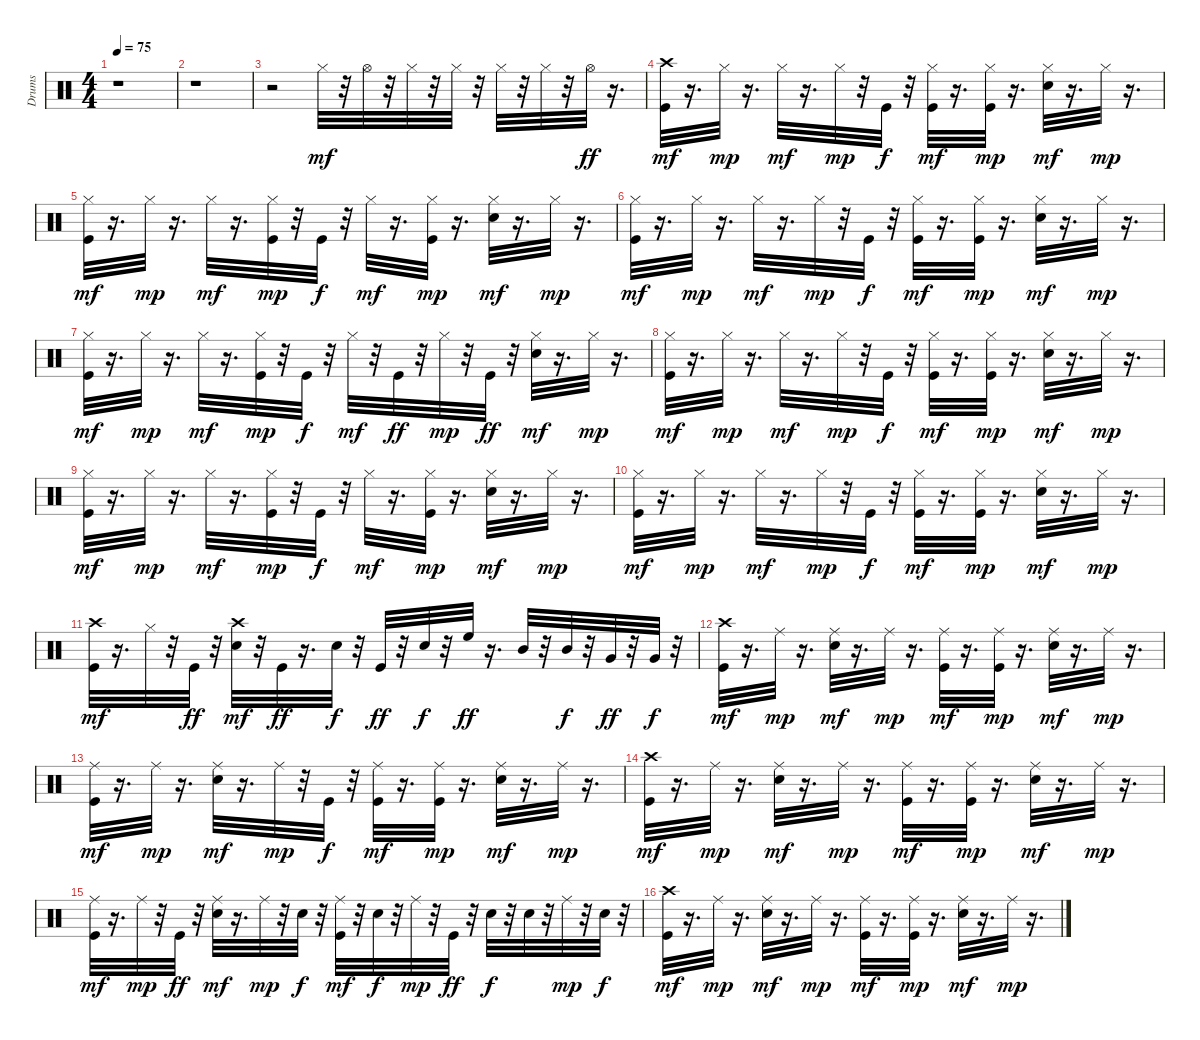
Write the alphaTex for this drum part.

\track ("Drums" "Drums") {instrument percussion}
\staff {score}
\articulation defaults
\ts (4 4)
\tempo 75
\clef neutral
\ks c
r.1{dy mf} |
r.1 |
r.2 "Hi-Hat (closed)".32 r.32 "Hi-Hat (open)".32 r.32 "Hi-Hat (closed)".32 r.32 "Hi-Hat (closed)".32 r.32 "Hi-Hat (closed)".32 r.32 "Hi-Hat (closed)".32 r.32 "Hi-Hat (open)".32{dy ff} r.16{d} |
("Kick (hit)" "Crash high (hit)").32{dy mf} r.16{d} "Hi-Hat (closed)".32{dy mp} r.16{d} "Hi-Hat (closed)".32{dy mf} r.16{d} "Hi-Hat (closed)".32{dy mp} r.32 "Kick (hit)".32{dy f} r.32 ("Kick (hit)" "Hi-Hat (closed)").32{dy mf} r.16{d} ("Kick (hit)" "Hi-Hat (closed)").32{dy mp} r.16{d} ("Snare (hit) 2" "Hi-Hat (closed)").32{dy mf} r.16{d} "Hi-Hat (closed)".32{dy mp} r.16{d} |
("Kick (hit)" "Hi-Hat (closed)").32{dy mf} r.16{d} "Hi-Hat (closed)".32{dy mp} r.16{d} "Hi-Hat (closed)".32{dy mf} r.16{d} ("Kick (hit)" "Hi-Hat (closed)").32{dy mp} r.32 "Kick (hit)".32{dy f} r.32 "Hi-Hat (closed)".32{dy mf} r.16{d} ("Kick (hit)" "Hi-Hat (closed)").32{dy mp} r.16{d} ("Snare (hit) 2" "Hi-Hat (closed)").32{dy mf} r.16{d} "Hi-Hat (closed)".32{dy mp} r.16{d} |
("Kick (hit)" "Hi-Hat (closed)").32{dy mf} r.16{d} "Hi-Hat (closed)".32{dy mp} r.16{d} "Hi-Hat (closed)".32{dy mf} r.16{d} "Hi-Hat (closed)".32{dy mp} r.32 "Kick (hit)".32{dy f} r.32 ("Kick (hit)" "Hi-Hat (closed)").32{dy mf} r.16{d} ("Kick (hit)" "Hi-Hat (closed)").32{dy mp} r.16{d} ("Snare (hit) 2" "Hi-Hat (closed)").32{dy mf} r.16{d} "Hi-Hat (closed)".32{dy mp} r.16{d} |
("Kick (hit)" "Hi-Hat (closed)").32{dy mf} r.16{d} "Hi-Hat (closed)".32{dy mp} r.16{d} "Hi-Hat (closed)".32{dy mf} r.16{d} ("Kick (hit)" "Hi-Hat (closed)").32{dy mp} r.32 "Kick (hit)".32{dy f} r.32 "Hi-Hat (closed)".32{dy mf} r.32 "Kick (hit)".32{dy ff} r.32 "Hi-Hat (closed)".32{dy mp} r.32 "Kick (hit)".32{dy ff} r.32 ("Snare (hit) 2" "Hi-Hat (closed)").32{dy mf} r.16{d} "Hi-Hat (closed)".32{dy mp} r.16{d} |
("Kick (hit)" "Hi-Hat (closed)").32{dy mf} r.16{d} "Hi-Hat (closed)".32{dy mp} r.16{d} "Hi-Hat (closed)".32{dy mf} r.16{d} "Hi-Hat (closed)".32{dy mp} r.32 "Kick (hit)".32{dy f} r.32 ("Kick (hit)" "Hi-Hat (closed)").32{dy mf} r.16{d} ("Kick (hit)" "Hi-Hat (closed)").32{dy mp} r.16{d} ("Snare (hit) 2" "Hi-Hat (closed)").32{dy mf} r.16{d} "Hi-Hat (closed)".32{dy mp} r.16{d} |
("Kick (hit)" "Hi-Hat (closed)").32{dy mf} r.16{d} "Hi-Hat (closed)".32{dy mp} r.16{d} "Hi-Hat (closed)".32{dy mf} r.16{d} ("Kick (hit)" "Hi-Hat (closed)").32{dy mp} r.32 "Kick (hit)".32{dy f} r.32 "Hi-Hat (closed)".32{dy mf} r.16{d} ("Kick (hit)" "Hi-Hat (closed)").32{dy mp} r.16{d} ("Snare (hit) 2" "Hi-Hat (closed)").32{dy mf} r.16{d} "Hi-Hat (closed)".32{dy mp} r.16{d} |
("Kick (hit)" "Hi-Hat (closed)").32{dy mf} r.16{d} "Hi-Hat (closed)".32{dy mp} r.16{d} "Hi-Hat (closed)".32{dy mf} r.16{d} "Hi-Hat (closed)".32{dy mp} r.32 "Kick (hit)".32{dy f} r.32 ("Kick (hit)" "Hi-Hat (closed)").32{dy mf} r.16{d} ("Kick (hit)" "Hi-Hat (closed)").32{dy mp} r.16{d} ("Snare (hit) 2" "Hi-Hat (closed)").32{dy mf} r.16{d} "Hi-Hat (closed)".32{dy mp} r.16{d} |
("Kick (hit)" "Crash high (hit)").32{dy mf} r.16{d} "Hi-Hat (closed)".32 r.32 "Kick (hit)".32{dy ff} r.32 ("Snare (hit) 2" "Crash high (hit)").32{dy mf} r.32 "Kick (hit)".32{dy ff} r.16{d} "Snare (hit) 2".32{dy f} r.32 "Kick (hit)".32{dy ff} r.32 "Snare (hit) 2".32{dy f} r.32 "High Floor Tom (hit)".32{dy ff} r.16{d} "Mid Tom (hit)".32 r.32 "Mid Tom (hit)".32{dy f} r.32 "Very Low Tom (hit)".32{dy ff} r.32 "Very Low Tom (hit)".32{dy f} r.32 |
("Kick (hit)" "Crash high (hit)").32{dy mf} r.16{d} "Ride (middle)".32{dy mp} r.16{d} ("Snare (hit) 2" "Ride (middle)").32{dy mf} r.16{d} "Ride (middle)".32{dy mp} r.16{d} ("Kick (hit)" "Ride (middle)").32{dy mf} r.16{d} ("Kick (hit)" "Ride (middle)").32{dy mp} r.16{d} ("Snare (hit) 2" "Ride (middle)").32{dy mf} r.16{d} "Ride (middle)".32{dy mp} r.16{d} |
("Kick (hit)" "Ride (middle)").32{dy mf} r.16{d} "Ride (middle)".32{dy mp} r.16{d} ("Snare (hit) 2" "Ride (middle)").32{dy mf} r.16{d} "Ride (middle)".32{dy mp} r.32 "Kick (hit)".32{dy f} r.32 ("Kick (hit)" "Ride (middle)").32{dy mf} r.16{d} ("Kick (hit)" "Ride (middle)").32{dy mp} r.16{d} ("Snare (hit) 2" "Ride (middle)").32{dy mf} r.16{d} "Ride (middle)".32{dy mp} r.16{d} |
("Kick (hit)" "Crash high (hit)").32{dy mf} r.16{d} "Ride (middle)".32{dy mp} r.16{d} ("Snare (hit) 2" "Ride (middle)").32{dy mf} r.16{d} "Ride (middle)".32{dy mp} r.16{d} ("Kick (hit)" "Ride (middle)").32{dy mf} r.16{d} ("Kick (hit)" "Ride (middle)").32{dy mp} r.16{d} ("Snare (hit) 2" "Ride (middle)").32{dy mf} r.16{d} "Ride (middle)".32{dy mp} r.16{d} |
("Kick (hit)" "Ride (middle)").32{dy mf} r.16{d} "Ride (middle)".32{dy mp} r.32 "Kick (hit)".32{dy ff} r.32 ("Snare (hit) 2" "Ride (middle)").32{dy mf} r.16{d} "Ride (middle)".32{dy mp} r.32 "Snare (hit) 2".32{dy f} r.32 ("Kick (hit)" "Ride (middle)").32{dy mf} r.32 "Snare (hit) 2".32{dy f} r.32 "Ride (middle)".32{dy mp} r.32 "Kick (hit)".32{dy ff} r.32 "Snare (hit) 2".32{dy f} r.32 "Snare (hit) 2".32 r.32 "Ride (middle)".32{dy mp} r.32 "Snare (hit) 2".32{dy f} r.32 |
("Kick (hit)" "Crash high (hit)").32{dy mf} r.16{d} "Ride (middle)".32{dy mp} r.16{d} ("Snare (hit) 2" "Ride (middle)").32{dy mf} r.16{d} "Ride (middle)".32{dy mp} r.16{d} ("Kick (hit)" "Ride (middle)").32{dy mf} r.16{d} ("Kick (hit)" "Ride (middle)").32{dy mp} r.16{d} ("Snare (hit) 2" "Ride (middle)").32{dy mf} r.16{d} "Ride (middle)".32{dy mp} r.16{d}
